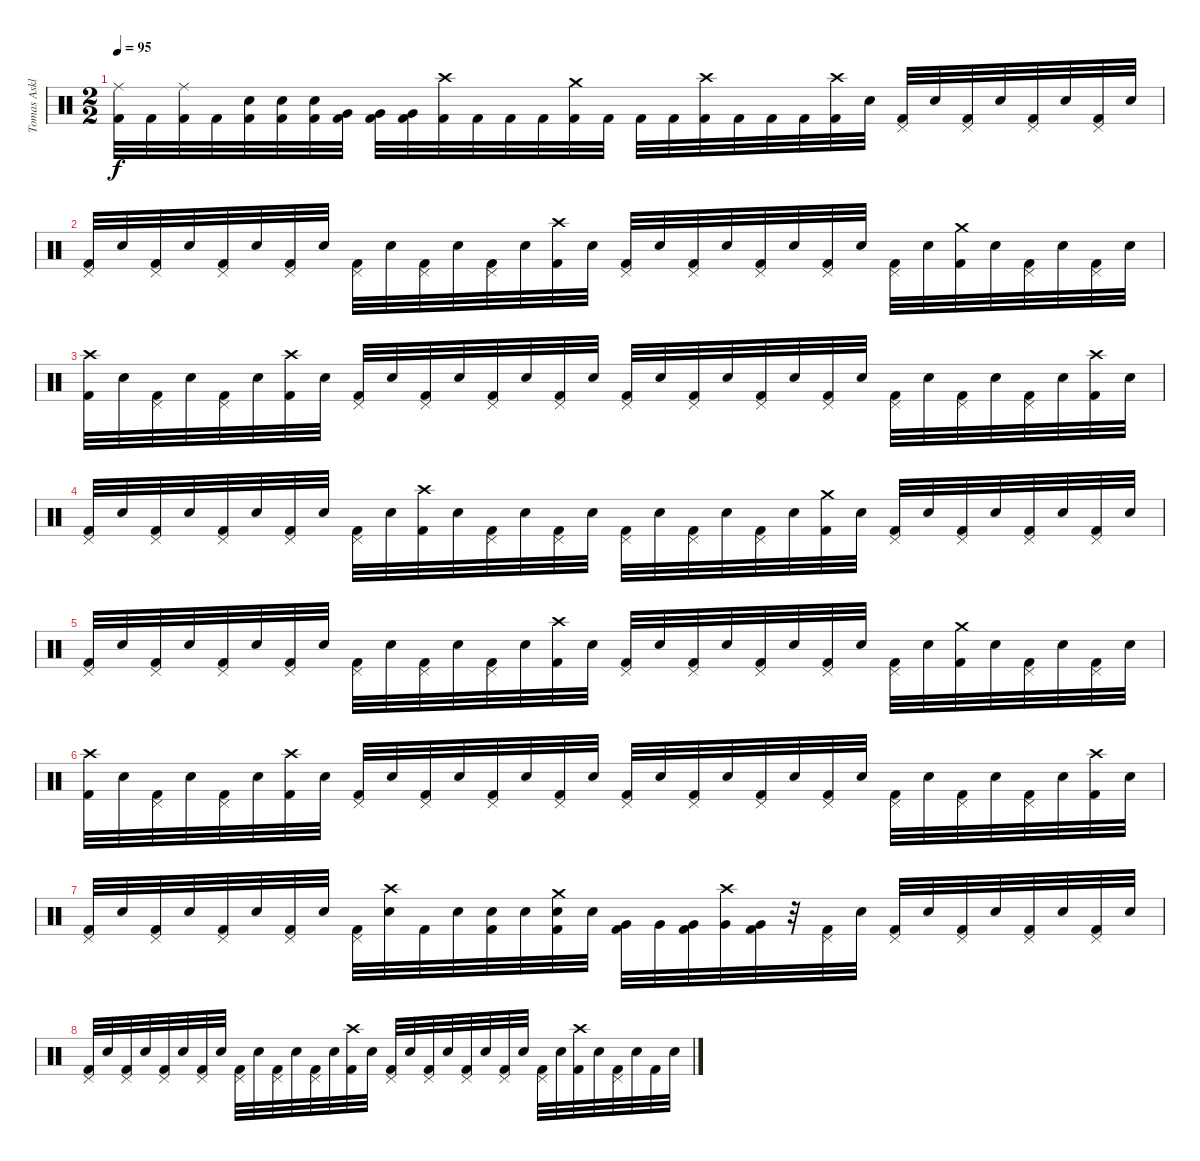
\track ("Tomas Asklund" "Tomas Askl") {instrument percussion}
\staff {score}
\articulation defaults
\ts (2 2)
\tempo 95
\clef neutral
\ks c
("Ride (middle)" "Kick (hit) 2").32{dy f} "Kick (hit) 2".32 ("Ride (middle)" "Kick (hit) 2").32 "Kick (hit) 2".32 ("Electric Snare (hit)" "Kick (hit) 2").32 ("Electric Snare (hit)" "Kick (hit) 2").32 ("Electric Snare (hit)" "Kick (hit) 2").32 ("Very Low Tom (hit)" "Kick (hit) 2").32 ("Very Low Tom (hit)" "Kick (hit) 2").32 ("Very Low Tom (hit)" "Kick (hit) 2").32 ("Crash high (hit)" "Kick (hit) 2").32 "Kick (hit) 2".32 "Kick (hit) 2".32 "Kick (hit) 2".32 ("Crash medium (hit)" "Kick (hit) 2").32 "Kick (hit) 2".32 "Kick (hit) 2".32 "Kick (hit) 2".32 ("Crash high (hit)" "Kick (hit) 2").32 "Kick (hit) 2".32 "Kick (hit) 2".32 "Kick (hit) 2".32 ("Crash high (hit)" "Kick (hit) 2").32 "Snare (hit) 2".32 ("Pedal Hi-Hat (hit)" "Kick (hit) 2").32 "Snare (hit) 2".32 ("Pedal Hi-Hat (hit)" "Kick (hit) 2").32 "Snare (hit) 2".32 ("Pedal Hi-Hat (hit)" "Kick (hit) 2").32 "Snare (hit) 2".32 ("Pedal Hi-Hat (hit)" "Kick (hit) 2").32 "Snare (hit) 2".32 |
("Pedal Hi-Hat (hit)" "Kick (hit) 2").32 "Snare (hit) 2".32 ("Pedal Hi-Hat (hit)" "Kick (hit) 2").32 "Snare (hit) 2".32 ("Pedal Hi-Hat (hit)" "Kick (hit) 2").32 "Snare (hit) 2".32 ("Pedal Hi-Hat (hit)" "Kick (hit) 2").32 "Snare (hit) 2".32 ("Pedal Hi-Hat (hit)" "Kick (hit) 2").32 "Snare (hit) 2".32 ("Pedal Hi-Hat (hit)" "Kick (hit) 2").32 "Snare (hit) 2".32 ("Pedal Hi-Hat (hit)" "Kick (hit) 2").32 "Snare (hit) 2".32 ("Crash high (hit)" "Kick (hit) 2").32 "Snare (hit) 2".32 ("Pedal Hi-Hat (hit)" "Kick (hit) 2").32 "Snare (hit) 2".32 ("Pedal Hi-Hat (hit)" "Kick (hit) 2").32 "Snare (hit) 2".32 ("Pedal Hi-Hat (hit)" "Kick (hit) 2").32 "Snare (hit) 2".32 ("Pedal Hi-Hat (hit)" "Kick (hit) 2").32 "Snare (hit) 2".32 ("Pedal Hi-Hat (hit)" "Kick (hit) 2").32 "Snare (hit) 2".32 ("Crash medium (hit)" "Kick (hit) 2").32 "Snare (hit) 2".32 ("Pedal Hi-Hat (hit)" "Kick (hit) 2").32 "Snare (hit) 2".32 ("Pedal Hi-Hat (hit)" "Kick (hit) 2").32 "Snare (hit) 2".32 |
("Crash high (hit)" "Kick (hit) 2").32 "Snare (hit) 2".32 ("Pedal Hi-Hat (hit)" "Kick (hit) 2").32 "Snare (hit) 2".32 ("Pedal Hi-Hat (hit)" "Kick (hit) 2").32 "Snare (hit) 2".32 ("Crash high (hit)" "Kick (hit) 2").32 "Snare (hit) 2".32 ("Pedal Hi-Hat (hit)" "Kick (hit) 2").32 "Snare (hit) 2".32 ("Pedal Hi-Hat (hit)" "Kick (hit) 2").32 "Snare (hit) 2".32 ("Pedal Hi-Hat (hit)" "Kick (hit) 2").32 "Snare (hit) 2".32 ("Pedal Hi-Hat (hit)" "Kick (hit) 2").32 "Snare (hit) 2".32 ("Pedal Hi-Hat (hit)" "Kick (hit) 2").32 "Snare (hit) 2".32 ("Pedal Hi-Hat (hit)" "Kick (hit) 2").32 "Snare (hit) 2".32 ("Pedal Hi-Hat (hit)" "Kick (hit) 2").32 "Snare (hit) 2".32 ("Pedal Hi-Hat (hit)" "Kick (hit) 2").32 "Snare (hit) 2".32 ("Pedal Hi-Hat (hit)" "Kick (hit) 2").32 "Snare (hit) 2".32 ("Pedal Hi-Hat (hit)" "Kick (hit) 2").32 "Snare (hit) 2".32 ("Pedal Hi-Hat (hit)" "Kick (hit) 2").32 "Snare (hit) 2".32 ("Crash high (hit)" "Kick (hit) 2").32 "Snare (hit) 2".32 |
("Pedal Hi-Hat (hit)" "Kick (hit) 2").32 "Snare (hit) 2".32 ("Pedal Hi-Hat (hit)" "Kick (hit) 2").32 "Snare (hit) 2".32 ("Pedal Hi-Hat (hit)" "Kick (hit) 2").32 "Snare (hit) 2".32 ("Pedal Hi-Hat (hit)" "Kick (hit) 2").32 "Snare (hit) 2".32 ("Pedal Hi-Hat (hit)" "Kick (hit) 2").32 "Snare (hit) 2".32 ("Crash high (hit)" "Kick (hit) 2").32 "Snare (hit) 2".32 ("Pedal Hi-Hat (hit)" "Kick (hit) 2").32 "Snare (hit) 2".32 ("Pedal Hi-Hat (hit)" "Kick (hit) 2").32 "Snare (hit) 2".32 ("Pedal Hi-Hat (hit)" "Kick (hit) 2").32 "Snare (hit) 2".32 ("Pedal Hi-Hat (hit)" "Kick (hit) 2").32 "Snare (hit) 2".32 ("Pedal Hi-Hat (hit)" "Kick (hit) 2").32 "Snare (hit) 2".32 ("Crash medium (hit)" "Kick (hit) 2").32 "Snare (hit) 2".32 ("Pedal Hi-Hat (hit)" "Kick (hit) 2").32 "Snare (hit) 2".32 ("Pedal Hi-Hat (hit)" "Kick (hit) 2").32 "Snare (hit) 2".32 ("Pedal Hi-Hat (hit)" "Kick (hit) 2").32 "Snare (hit) 2".32 ("Pedal Hi-Hat (hit)" "Kick (hit) 2").32 "Snare (hit) 2".32 |
("Pedal Hi-Hat (hit)" "Kick (hit) 2").32 "Snare (hit) 2".32 ("Pedal Hi-Hat (hit)" "Kick (hit) 2").32 "Snare (hit) 2".32 ("Pedal Hi-Hat (hit)" "Kick (hit) 2").32 "Snare (hit) 2".32 ("Pedal Hi-Hat (hit)" "Kick (hit) 2").32 "Snare (hit) 2".32 ("Pedal Hi-Hat (hit)" "Kick (hit) 2").32 "Snare (hit) 2".32 ("Pedal Hi-Hat (hit)" "Kick (hit) 2").32 "Snare (hit) 2".32 ("Pedal Hi-Hat (hit)" "Kick (hit) 2").32 "Snare (hit) 2".32 ("Crash high (hit)" "Kick (hit) 2").32 "Snare (hit) 2".32 ("Pedal Hi-Hat (hit)" "Kick (hit) 2").32 "Snare (hit) 2".32 ("Pedal Hi-Hat (hit)" "Kick (hit) 2").32 "Snare (hit) 2".32 ("Pedal Hi-Hat (hit)" "Kick (hit) 2").32 "Snare (hit) 2".32 ("Pedal Hi-Hat (hit)" "Kick (hit) 2").32 "Snare (hit) 2".32 ("Pedal Hi-Hat (hit)" "Kick (hit) 2").32 "Snare (hit) 2".32 ("Crash medium (hit)" "Kick (hit) 2").32 "Snare (hit) 2".32 ("Pedal Hi-Hat (hit)" "Kick (hit) 2").32 "Snare (hit) 2".32 ("Pedal Hi-Hat (hit)" "Kick (hit) 2").32 "Snare (hit) 2".32 |
("Crash high (hit)" "Kick (hit) 2").32 "Snare (hit) 2".32 ("Pedal Hi-Hat (hit)" "Kick (hit) 2").32 "Snare (hit) 2".32 ("Pedal Hi-Hat (hit)" "Kick (hit) 2").32 "Snare (hit) 2".32 ("Crash high (hit)" "Kick (hit) 2").32 "Snare (hit) 2".32 ("Pedal Hi-Hat (hit)" "Kick (hit) 2").32 "Snare (hit) 2".32 ("Pedal Hi-Hat (hit)" "Kick (hit) 2").32 "Snare (hit) 2".32 ("Pedal Hi-Hat (hit)" "Kick (hit) 2").32 "Snare (hit) 2".32 ("Pedal Hi-Hat (hit)" "Kick (hit) 2").32 "Snare (hit) 2".32 ("Pedal Hi-Hat (hit)" "Kick (hit) 2").32 "Snare (hit) 2".32 ("Pedal Hi-Hat (hit)" "Kick (hit) 2").32 "Snare (hit) 2".32 ("Pedal Hi-Hat (hit)" "Kick (hit) 2").32 "Snare (hit) 2".32 ("Pedal Hi-Hat (hit)" "Kick (hit) 2").32 "Snare (hit) 2".32 ("Pedal Hi-Hat (hit)" "Kick (hit) 2").32 "Snare (hit) 2".32 ("Pedal Hi-Hat (hit)" "Kick (hit) 2").32 "Snare (hit) 2".32 ("Pedal Hi-Hat (hit)" "Kick (hit) 2").32 "Snare (hit) 2".32 ("Crash high (hit)" "Kick (hit) 2").32 "Snare (hit) 2".32 |
("Pedal Hi-Hat (hit)" "Kick (hit) 2").32 "Snare (hit) 2".32 ("Pedal Hi-Hat (hit)" "Kick (hit) 2").32 "Snare (hit) 2".32 ("Pedal Hi-Hat (hit)" "Kick (hit) 2").32 "Snare (hit) 2".32 ("Pedal Hi-Hat (hit)" "Kick (hit) 2").32 "Snare (hit) 2".32 ("Pedal Hi-Hat (hit)" "Kick (hit) 2").32 ("Crash high (hit)" "Snare (hit) 2").32 "Kick (hit) 2".32 "Snare (hit) 2".32 ("Snare (hit) 2" "Kick (hit) 2").32 "Snare (hit) 2".32 ("Crash medium (hit)" "Snare (hit) 2" "Kick (hit) 2").32 "Snare (hit) 2".32 ("Very Low Tom (hit)" "Kick (hit) 2").32 "Very Low Tom (hit)".32 ("Very Low Tom (hit)" "Kick (hit) 2").32 ("Crash high (hit)" "Very Low Tom (hit)").32 ("Very Low Tom (hit)" "Kick (hit) 2").32 r.32 ("Pedal Hi-Hat (hit)" "Kick (hit) 2").32 "Snare (hit) 2".32 ("Pedal Hi-Hat (hit)" "Kick (hit) 2").32 "Snare (hit) 2".32 ("Pedal Hi-Hat (hit)" "Kick (hit) 2").32 "Snare (hit) 2".32 ("Pedal Hi-Hat (hit)" "Kick (hit) 2").32 "Snare (hit) 2".32 ("Pedal Hi-Hat (hit)" "Kick (hit) 2").32 "Snare (hit) 2".32 |
("Pedal Hi-Hat (hit)" "Kick (hit) 2").32 "Snare (hit) 2".32 ("Pedal Hi-Hat (hit)" "Kick (hit) 2").32 "Snare (hit) 2".32 ("Pedal Hi-Hat (hit)" "Kick (hit) 2").32 "Snare (hit) 2".32 ("Pedal Hi-Hat (hit)" "Kick (hit) 2").32 "Snare (hit) 2".32 ("Pedal Hi-Hat (hit)" "Kick (hit) 2").32 "Snare (hit) 2".32 ("Pedal Hi-Hat (hit)" "Kick (hit) 2").32 "Snare (hit) 2".32 ("Pedal Hi-Hat (hit)" "Kick (hit) 2").32 "Snare (hit) 2".32 ("Crash high (hit)" "Kick (hit) 2").32 "Snare (hit) 2".32 ("Pedal Hi-Hat (hit)" "Kick (hit) 2").32 "Snare (hit) 2".32 ("Pedal Hi-Hat (hit)" "Kick (hit) 2").32 "Snare (hit) 2".32 ("Pedal Hi-Hat (hit)" "Kick (hit) 2").32 "Snare (hit) 2".32 ("Pedal Hi-Hat (hit)" "Kick (hit) 2").32 "Snare (hit) 2".32 ("Pedal Hi-Hat (hit)" "Kick (hit) 2").32 "Snare (hit) 2".32 ("Crash high (hit)" "Kick (hit) 2").32 "Snare (hit) 2".32 ("Pedal Hi-Hat (hit)" "Kick (hit) 2").32 "Snare (hit) 2".32 "Kick (hit) 2".32 "Snare (hit) 2".32
